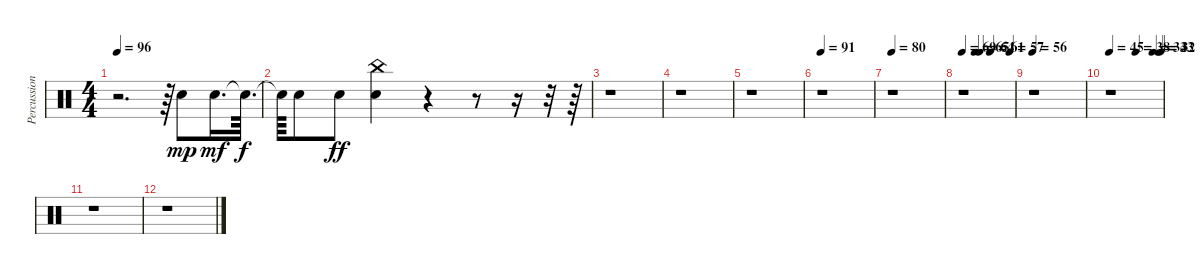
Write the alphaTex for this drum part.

\track ("Percussion" "Percussion") {instrument percussion}
\staff {score}
\articulation defaults
\ts (4 4)
\tempo 96
\clef neutral
\ks c
r.2{d dy mp} r.64 "Snare (hit)".8 "Snare (hit)".16{d dy mf} "Snare (hit)"{t}.64{d dy f} |
"Snare (hit)"{t}.64 "Snare (hit)".8 "Snare (hit)".8{dy ff} ("Snare (hit)" "China (hit)").4 r.4 r.8 r.16 r.32 r.64 |
r.1 |
r.1 |
r.1 |
\tempo 91
r.1 |
\tempo 80
r.1 |
\tempo 69
\tempo (65 0.25)
\tempo (64 0.34375)
\tempo (61 0.54375)
\tempo (57 0.91875)
r.1 |
\tempo 56
r.1 |
\tempo 45
\tempo (38 0.5)
\tempo (34 0.8229166666666666)
\tempo (33 0.9479166666666666)
\tempo (32 0.9791666666666666)
r.1 |
r.1 |
r.1
